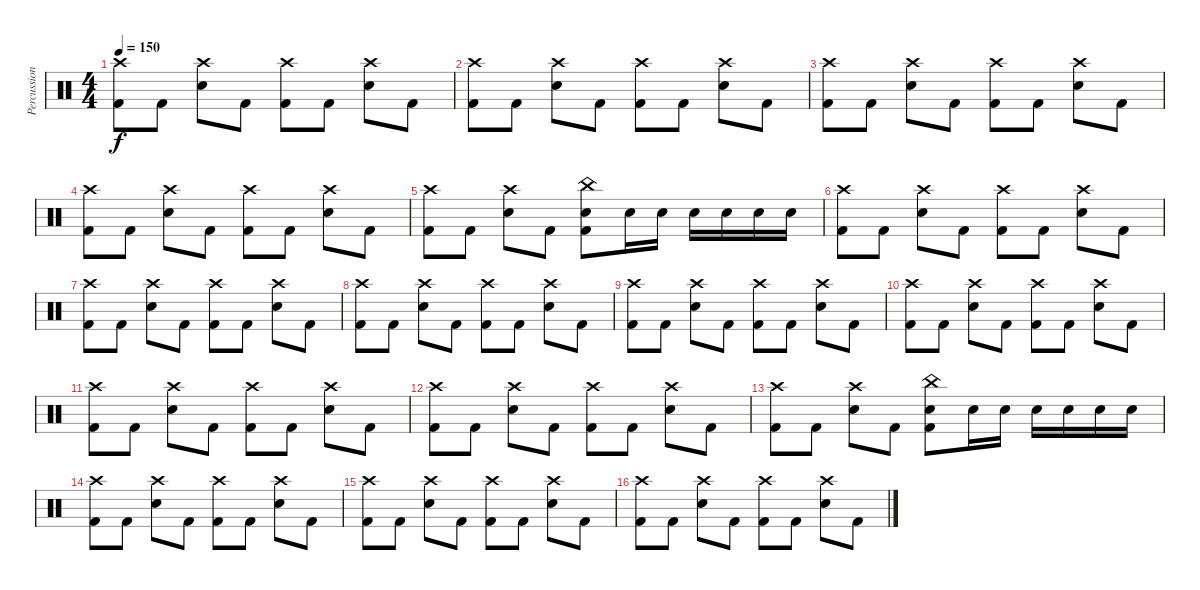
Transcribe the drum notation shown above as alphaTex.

\track ("Percussion" "Percussion") {instrument percussion}
\staff {score}
\articulation defaults
\ts (4 4)
\tempo 150
\clef neutral
\ks c
("Crash high (hit)" "Kick (hit) 2").8{dy f} "Kick (hit) 2".8 ("Crash high (hit)" "Electric Snare (hit)").8 "Kick (hit) 2".8 ("Crash high (hit)" "Kick (hit) 2").8 "Kick (hit) 2".8 ("Crash high (hit)" "Electric Snare (hit)").8 "Kick (hit) 2".8 |
("Crash high (hit)" "Kick (hit) 2").8 "Kick (hit) 2".8 ("Crash high (hit)" "Electric Snare (hit)").8 "Kick (hit) 2".8 ("Crash high (hit)" "Kick (hit) 2").8 "Kick (hit) 2".8 ("Crash high (hit)" "Electric Snare (hit)").8 "Kick (hit) 2".8 |
("Crash high (hit)" "Kick (hit) 2").8 "Kick (hit) 2".8 ("Crash high (hit)" "Electric Snare (hit)").8 "Kick (hit) 2".8 ("Crash high (hit)" "Kick (hit) 2").8 "Kick (hit) 2".8 ("Crash high (hit)" "Electric Snare (hit)").8 "Kick (hit) 2".8 |
("Crash high (hit)" "Kick (hit) 2").8 "Kick (hit) 2".8 ("Crash high (hit)" "Electric Snare (hit)").8 "Kick (hit) 2".8 ("Crash high (hit)" "Kick (hit) 2").8 "Kick (hit) 2".8 ("Crash high (hit)" "Electric Snare (hit)").8 "Kick (hit) 2".8 |
("Crash high (hit)" "Kick (hit) 2").8 "Kick (hit) 2".8 ("Crash high (hit)" "Electric Snare (hit)").8 "Kick (hit) 2".8 ("China (hit)" "Electric Snare (hit)" "Kick (hit) 2").8 "Electric Snare (hit)".16 "Electric Snare (hit)".16 "Electric Snare (hit)".16 "Electric Snare (hit)".16 "Electric Snare (hit)".16 "Electric Snare (hit)".16 |
("Crash high (hit)" "Kick (hit) 2").8 "Kick (hit) 2".8 ("Crash high (hit)" "Electric Snare (hit)").8 "Kick (hit) 2".8 ("Crash high (hit)" "Kick (hit) 2").8 "Kick (hit) 2".8 ("Crash high (hit)" "Electric Snare (hit)").8 "Kick (hit) 2".8 |
("Crash high (hit)" "Kick (hit) 2").8 "Kick (hit) 2".8 ("Crash high (hit)" "Electric Snare (hit)").8 "Kick (hit) 2".8 ("Crash high (hit)" "Kick (hit) 2").8 "Kick (hit) 2".8 ("Crash high (hit)" "Electric Snare (hit)").8 "Kick (hit) 2".8 |
("Crash high (hit)" "Kick (hit) 2").8 "Kick (hit) 2".8 ("Crash high (hit)" "Electric Snare (hit)").8 "Kick (hit) 2".8 ("Crash high (hit)" "Kick (hit) 2").8 "Kick (hit) 2".8 ("Crash high (hit)" "Electric Snare (hit)").8 "Kick (hit) 2".8 |
("Crash high (hit)" "Kick (hit) 2").8 "Kick (hit) 2".8 ("Crash high (hit)" "Electric Snare (hit)").8 "Kick (hit) 2".8 ("Crash high (hit)" "Kick (hit) 2").8 "Kick (hit) 2".8 ("Crash high (hit)" "Electric Snare (hit)").8 "Kick (hit) 2".8 |
("Crash high (hit)" "Kick (hit) 2").8 "Kick (hit) 2".8 ("Crash high (hit)" "Electric Snare (hit)").8 "Kick (hit) 2".8 ("Crash high (hit)" "Kick (hit) 2").8 "Kick (hit) 2".8 ("Crash high (hit)" "Electric Snare (hit)").8 "Kick (hit) 2".8 |
("Crash high (hit)" "Kick (hit) 2").8 "Kick (hit) 2".8 ("Crash high (hit)" "Electric Snare (hit)").8 "Kick (hit) 2".8 ("Crash high (hit)" "Kick (hit) 2").8 "Kick (hit) 2".8 ("Crash high (hit)" "Electric Snare (hit)").8 "Kick (hit) 2".8 |
("Crash high (hit)" "Kick (hit) 2").8 "Kick (hit) 2".8 ("Crash high (hit)" "Electric Snare (hit)").8 "Kick (hit) 2".8 ("Crash high (hit)" "Kick (hit) 2").8 "Kick (hit) 2".8 ("Crash high (hit)" "Electric Snare (hit)").8 "Kick (hit) 2".8 |
("Crash high (hit)" "Kick (hit) 2").8 "Kick (hit) 2".8 ("Crash high (hit)" "Electric Snare (hit)").8 "Kick (hit) 2".8 ("China (hit)" "Electric Snare (hit)" "Kick (hit) 2").8 "Electric Snare (hit)".16 "Electric Snare (hit)".16 "Electric Snare (hit)".16 "Electric Snare (hit)".16 "Electric Snare (hit)".16 "Electric Snare (hit)".16 |
("Crash high (hit)" "Kick (hit) 2").8 "Kick (hit) 2".8 ("Crash high (hit)" "Electric Snare (hit)").8 "Kick (hit) 2".8 ("Crash high (hit)" "Kick (hit) 2").8 "Kick (hit) 2".8 ("Crash high (hit)" "Electric Snare (hit)").8 "Kick (hit) 2".8 |
("Crash high (hit)" "Kick (hit) 2").8 "Kick (hit) 2".8 ("Crash high (hit)" "Electric Snare (hit)").8 "Kick (hit) 2".8 ("Crash high (hit)" "Kick (hit) 2").8 "Kick (hit) 2".8 ("Crash high (hit)" "Electric Snare (hit)").8 "Kick (hit) 2".8 |
("Crash high (hit)" "Kick (hit) 2").8 "Kick (hit) 2".8 ("Crash high (hit)" "Electric Snare (hit)").8 "Kick (hit) 2".8 ("Crash high (hit)" "Kick (hit) 2").8 "Kick (hit) 2".8 ("Crash high (hit)" "Electric Snare (hit)").8 "Kick (hit) 2".8
